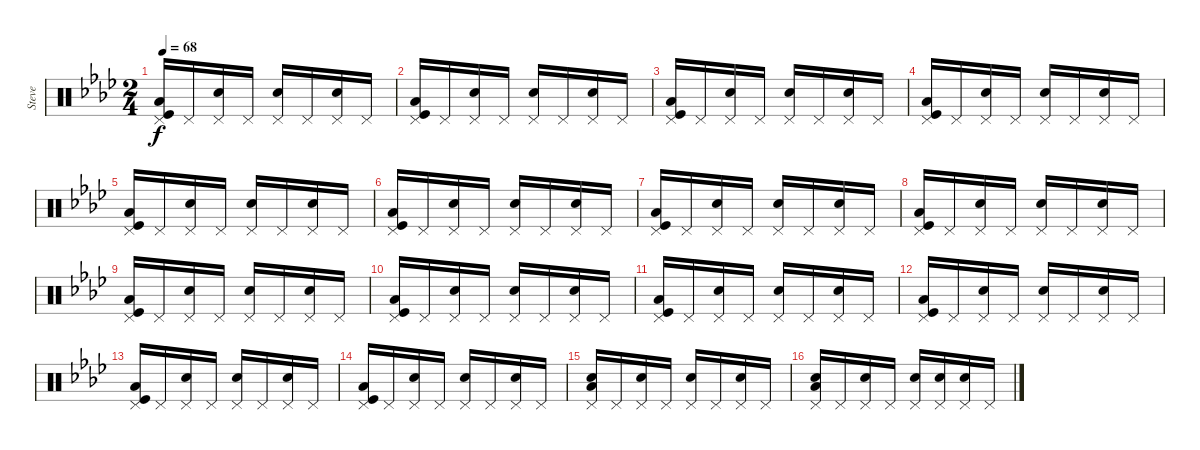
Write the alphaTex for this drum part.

\track ("Steve" "Steve") {instrument percussion}
\staff {score}
\articulation defaults
\ts (2 4)
\tempo 68
\clef neutral
\ks fminor
("Kick (hit)" "Pedal Hi-Hat (hit)" "Low Floor Tom (hit)").16{dy f} "Pedal Hi-Hat (hit)".16 ("Electric Snare (hit)" "Pedal Hi-Hat (hit)").16 "Pedal Hi-Hat (hit)".16 ("Electric Snare (hit)" "Pedal Hi-Hat (hit)").16 "Pedal Hi-Hat (hit)".16 ("Electric Snare (hit)" "Pedal Hi-Hat (hit)").16 "Pedal Hi-Hat (hit)".16 |
("Kick (hit)" "Pedal Hi-Hat (hit)" "Low Floor Tom (hit)").16 "Pedal Hi-Hat (hit)".16 ("Electric Snare (hit)" "Pedal Hi-Hat (hit)").16 "Pedal Hi-Hat (hit)".16 ("Electric Snare (hit)" "Pedal Hi-Hat (hit)").16 "Pedal Hi-Hat (hit)".16 ("Electric Snare (hit)" "Pedal Hi-Hat (hit)").16 "Pedal Hi-Hat (hit)".16 |
("Kick (hit)" "Pedal Hi-Hat (hit)" "Low Floor Tom (hit)").16 "Pedal Hi-Hat (hit)".16 ("Electric Snare (hit)" "Pedal Hi-Hat (hit)").16 "Pedal Hi-Hat (hit)".16 ("Electric Snare (hit)" "Pedal Hi-Hat (hit)").16 "Pedal Hi-Hat (hit)".16 ("Electric Snare (hit)" "Pedal Hi-Hat (hit)").16 "Pedal Hi-Hat (hit)".16 |
("Kick (hit)" "Pedal Hi-Hat (hit)" "Low Floor Tom (hit)").16 "Pedal Hi-Hat (hit)".16 ("Electric Snare (hit)" "Pedal Hi-Hat (hit)").16 "Pedal Hi-Hat (hit)".16 ("Electric Snare (hit)" "Pedal Hi-Hat (hit)").16 "Pedal Hi-Hat (hit)".16 ("Electric Snare (hit)" "Pedal Hi-Hat (hit)").16 "Pedal Hi-Hat (hit)".16 |
("Kick (hit)" "Pedal Hi-Hat (hit)" "Low Floor Tom (hit)").16 "Pedal Hi-Hat (hit)".16 ("Electric Snare (hit)" "Pedal Hi-Hat (hit)").16 "Pedal Hi-Hat (hit)".16 ("Electric Snare (hit)" "Pedal Hi-Hat (hit)").16 "Pedal Hi-Hat (hit)".16 ("Electric Snare (hit)" "Pedal Hi-Hat (hit)").16 "Pedal Hi-Hat (hit)".16 |
("Kick (hit)" "Pedal Hi-Hat (hit)" "Low Floor Tom (hit)").16 "Pedal Hi-Hat (hit)".16 ("Electric Snare (hit)" "Pedal Hi-Hat (hit)").16 "Pedal Hi-Hat (hit)".16 ("Electric Snare (hit)" "Pedal Hi-Hat (hit)").16 "Pedal Hi-Hat (hit)".16 ("Electric Snare (hit)" "Pedal Hi-Hat (hit)").16 "Pedal Hi-Hat (hit)".16 |
("Kick (hit)" "Pedal Hi-Hat (hit)" "Low Floor Tom (hit)").16 "Pedal Hi-Hat (hit)".16 ("Electric Snare (hit)" "Pedal Hi-Hat (hit)").16 "Pedal Hi-Hat (hit)".16 ("Electric Snare (hit)" "Pedal Hi-Hat (hit)").16 "Pedal Hi-Hat (hit)".16 ("Electric Snare (hit)" "Pedal Hi-Hat (hit)").16 "Pedal Hi-Hat (hit)".16 |
("Kick (hit)" "Pedal Hi-Hat (hit)" "Low Floor Tom (hit)").16 "Pedal Hi-Hat (hit)".16 ("Electric Snare (hit)" "Pedal Hi-Hat (hit)").16 "Pedal Hi-Hat (hit)".16 ("Electric Snare (hit)" "Pedal Hi-Hat (hit)").16 "Pedal Hi-Hat (hit)".16 ("Electric Snare (hit)" "Pedal Hi-Hat (hit)").16 "Pedal Hi-Hat (hit)".16 |
("Kick (hit)" "Pedal Hi-Hat (hit)" "Low Floor Tom (hit)").16 "Pedal Hi-Hat (hit)".16 ("Electric Snare (hit)" "Pedal Hi-Hat (hit)").16 "Pedal Hi-Hat (hit)".16 ("Electric Snare (hit)" "Pedal Hi-Hat (hit)").16 "Pedal Hi-Hat (hit)".16 ("Electric Snare (hit)" "Pedal Hi-Hat (hit)").16 "Pedal Hi-Hat (hit)".16 |
("Kick (hit)" "Pedal Hi-Hat (hit)" "Low Floor Tom (hit)").16 "Pedal Hi-Hat (hit)".16 ("Electric Snare (hit)" "Pedal Hi-Hat (hit)").16 "Pedal Hi-Hat (hit)".16 ("Electric Snare (hit)" "Pedal Hi-Hat (hit)").16 "Pedal Hi-Hat (hit)".16 ("Electric Snare (hit)" "Pedal Hi-Hat (hit)").16 "Pedal Hi-Hat (hit)".16 |
("Kick (hit)" "Pedal Hi-Hat (hit)" "Low Floor Tom (hit)").16 "Pedal Hi-Hat (hit)".16 ("Electric Snare (hit)" "Pedal Hi-Hat (hit)").16 "Pedal Hi-Hat (hit)".16 ("Electric Snare (hit)" "Pedal Hi-Hat (hit)").16 "Pedal Hi-Hat (hit)".16 ("Electric Snare (hit)" "Pedal Hi-Hat (hit)").16 "Pedal Hi-Hat (hit)".16 |
("Kick (hit)" "Pedal Hi-Hat (hit)" "Low Floor Tom (hit)").16 "Pedal Hi-Hat (hit)".16 ("Electric Snare (hit)" "Pedal Hi-Hat (hit)").16 "Pedal Hi-Hat (hit)".16 ("Electric Snare (hit)" "Pedal Hi-Hat (hit)").16 "Pedal Hi-Hat (hit)".16 ("Electric Snare (hit)" "Pedal Hi-Hat (hit)").16 "Pedal Hi-Hat (hit)".16 |
("Kick (hit)" "Pedal Hi-Hat (hit)" "Low Floor Tom (hit)").16 "Pedal Hi-Hat (hit)".16 ("Electric Snare (hit)" "Pedal Hi-Hat (hit)").16 "Pedal Hi-Hat (hit)".16 ("Electric Snare (hit)" "Pedal Hi-Hat (hit)").16 "Pedal Hi-Hat (hit)".16 ("Electric Snare (hit)" "Pedal Hi-Hat (hit)").16 "Pedal Hi-Hat (hit)".16 |
("Kick (hit)" "Pedal Hi-Hat (hit)" "Low Floor Tom (hit)").16 "Pedal Hi-Hat (hit)".16 ("Electric Snare (hit)" "Pedal Hi-Hat (hit)").16 "Pedal Hi-Hat (hit)".16 ("Electric Snare (hit)" "Pedal Hi-Hat (hit)").16 "Pedal Hi-Hat (hit)".16 ("Electric Snare (hit)" "Pedal Hi-Hat (hit)").16 "Pedal Hi-Hat (hit)".16 |
("Electric Snare (hit)" "Pedal Hi-Hat (hit)" "Low Floor Tom (hit)").16 "Pedal Hi-Hat (hit)".16 ("Electric Snare (hit)" "Pedal Hi-Hat (hit)").16 "Pedal Hi-Hat (hit)".16 ("Electric Snare (hit)" "Pedal Hi-Hat (hit)").16 "Pedal Hi-Hat (hit)".16 ("Electric Snare (hit)" "Pedal Hi-Hat (hit)").16 "Pedal Hi-Hat (hit)".16 |
("Electric Snare (hit)" "Pedal Hi-Hat (hit)" "Low Floor Tom (hit)").16 "Pedal Hi-Hat (hit)".16 ("Electric Snare (hit)" "Pedal Hi-Hat (hit)").16 "Pedal Hi-Hat (hit)".16 ("Electric Snare (hit)" "Pedal Hi-Hat (hit)").16 ("Electric Snare (hit)" "Pedal Hi-Hat (hit)").16 ("Electric Snare (hit)" "Pedal Hi-Hat (hit)").16 "Pedal Hi-Hat (hit)".16
